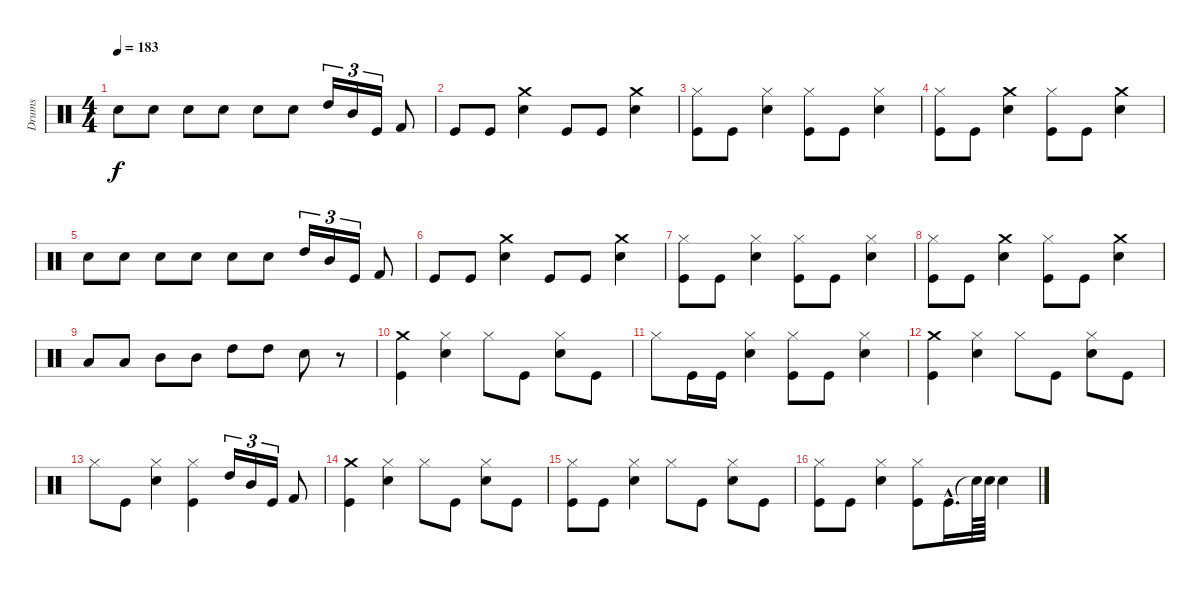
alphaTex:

\track ("Drums" "Drums") {instrument percussion}
\staff {score}
\articulation defaults
\ts (4 4)
\tempo 183
\clef neutral
\ks c "Snare (hit) 2".8{dy f} "Snare (hit) 2".8 "Snare (hit) 2".8 "Snare (hit) 2".8 "Snare (hit) 2".8 "Snare (hit) 2".8 "High Tom (hit)".16{tu (3 2)} "Mid Tom (hit)".16{tu (3 2)} "Kick (hit)".16{tu (3 2)} "Kick (hit) 2".8
|
"Kick (hit)".8 "Kick (hit)".8 ("Crash medium (hit)" "Snare (hit) 2").4 "Kick (hit)".8 "Kick (hit)".8 ("Crash medium (hit)" "Snare (hit) 2").4 |
("Kick (hit)" "Hi-Hat (closed)").8 "Kick (hit)".8 ("Snare (hit) 2" "Hi-Hat (closed)").4 ("Kick (hit)" "Hi-Hat (closed)").8 "Kick (hit)".8 ("Snare (hit) 2" "Hi-Hat (closed)").4 |
("Kick (hit)" "Hi-Hat (closed)").8 "Kick (hit)".8 ("Snare (hit) 2" "Crash medium (hit)").4 ("Kick (hit)" "Hi-Hat (closed)").8 "Kick (hit)".8 ("Crash medium (hit)" "Snare (hit) 2").4 |
"Snare (hit) 2".8 "Snare (hit) 2".8 "Snare (hit) 2".8 "Snare (hit) 2".8 "Snare (hit) 2".8 "Snare (hit) 2".8 "High Tom (hit)".16{tu (3 2)} "Mid Tom (hit)".16{tu (3 2)} "Kick (hit)".16{tu (3 2)} "Kick (hit) 2".8 |
"Kick (hit)".8 "Kick (hit)".8 ("Crash medium (hit)" "Snare (hit) 2").4 "Kick (hit)".8 "Kick (hit)".8 ("Crash medium (hit)" "Snare (hit) 2").4 |
("Kick (hit)" "Hi-Hat (closed)").8 "Kick (hit)".8 ("Snare (hit) 2" "Hi-Hat (closed)").4 ("Kick (hit)" "Hi-Hat (closed)").8 "Kick (hit)".8 ("Snare (hit) 2" "Hi-Hat (closed)").4 |
("Kick (hit)" "Hi-Hat (closed)").8 "Kick (hit)".8 ("Snare (hit) 2" "Crash medium (hit)").4 ("Kick (hit)" "Hi-Hat (closed)").8 "Kick (hit)".8 ("Crash medium (hit)" "Snare (hit) 2").4 |
"Low Tom (hit)".8 "Low Tom (hit)".8 "Mid Tom (hit)".8 "Mid Tom (hit)".8 "High Tom (hit)".8 "High Tom (hit)".8 "Snare (hit) 2".8 r.8 |
("Kick (hit)" "Crash medium (hit)").4 ("Snare (hit) 2" "Hi-Hat (closed)").4 "Hi-Hat (closed)".8 "Kick (hit)".8 ("Snare (hit) 2" "Hi-Hat (closed)").8 "Kick (hit)".8 |
"Hi-Hat (closed)".8 "Kick (hit)".16 "Kick (hit)".16 ("Snare (hit) 2" "Hi-Hat (closed)").4 ("Kick (hit)" "Hi-Hat (closed)").8 "Kick (hit)".8 ("Snare (hit) 2" "Hi-Hat (closed)").4 |
("Kick (hit)" "Crash medium (hit)").4 ("Hi-Hat (closed)" "Snare (hit) 2").4 "Hi-Hat (closed)".8 "Kick (hit)".8 ("Snare (hit) 2" "Hi-Hat (closed)").8 "Kick (hit)".8 |
"Hi-Hat (closed)".8 "Kick (hit)".8 ("Snare (hit) 2" "Hi-Hat (closed)").4 ("Kick (hit)" "Hi-Hat (closed)").4 "High Tom (hit)".16{tu (3 2)} "Mid Tom (hit)".16{tu (3 2)} "Kick (hit)".16{tu (3 2)} "Kick (hit) 2".8 |
("Kick (hit)" "Crash medium (hit)").4 ("Snare (hit) 2" "Hi-Hat (closed)").4 "Hi-Hat (closed)".8 "Kick (hit)".8 ("Snare (hit) 2" "Hi-Hat (closed)").8 "Kick (hit)".8 |
("Kick (hit)" "Hi-Hat (closed)").8 "Kick (hit)".8 ("Snare (hit) 2" "Hi-Hat (closed)").4 "Hi-Hat (closed)".8 "Kick (hit)".8 ("Snare (hit) 2" "Hi-Hat (closed)").8 "Kick (hit)".8 |
("Hi-Hat (closed)" "Kick (hit)").8 "Kick (hit)".8 ("Snare (hit) 2" "Hi-Hat (closed)").4 ("Hi-Hat (closed)" "Kick (hit)").8 "Kick (hit)"{hac}.16{d} "Snare (hit)"{t}.64 "Snare (hit) 2".64 "Snare (hit) 2".4
